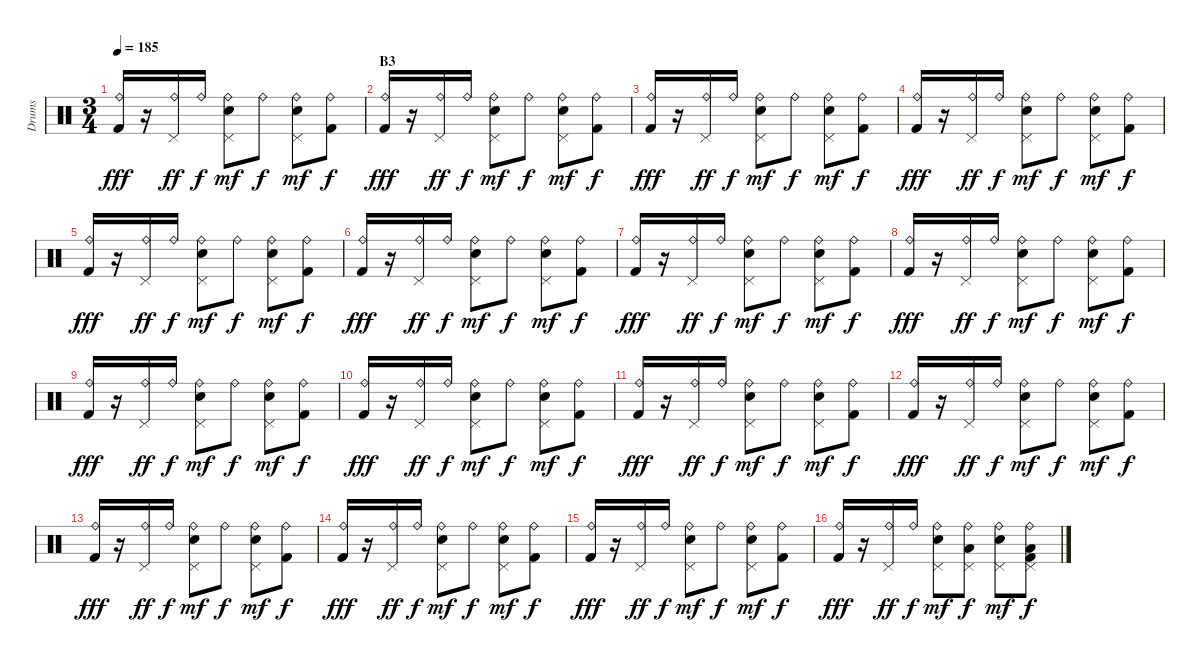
\track ("Drums" "Drums") {instrument percussion}
\staff {score}
\articulation defaults
\ts (3 4)
\tempo 185
\clef neutral
\ks c
("Ride (bell)" "Kick (hit) 2").16{dy fff} r.16 ("Ride (bell)" "Pedal Hi-Hat (hit)").16{dy ff} "Ride (bell)".16{dy f} ("Ride (bell)" "Pedal Hi-Hat (hit)" "Electric Snare (hit)").8{dy mf} "Ride (bell)".8{dy f} ("Ride (bell)" "Pedal Hi-Hat (hit)" "Electric Snare (hit)").8{dy mf} ("Ride (bell)" "Kick (hit) 2").8{dy f} |
\section ("" "B3")
("Ride (bell)" "Kick (hit) 2").16{dy fff} r.16 ("Ride (bell)" "Pedal Hi-Hat (hit)").16{dy ff} "Ride (bell)".16{dy f} ("Ride (bell)" "Pedal Hi-Hat (hit)" "Electric Snare (hit)").8{dy mf} "Ride (bell)".8{dy f} ("Ride (bell)" "Pedal Hi-Hat (hit)" "Electric Snare (hit)").8{dy mf} ("Ride (bell)" "Kick (hit) 2").8{dy f} |
("Ride (bell)" "Kick (hit) 2").16{dy fff} r.16 ("Ride (bell)" "Pedal Hi-Hat (hit)").16{dy ff} "Ride (bell)".16{dy f} ("Ride (bell)" "Pedal Hi-Hat (hit)" "Electric Snare (hit)").8{dy mf} "Ride (bell)".8{dy f} ("Ride (bell)" "Pedal Hi-Hat (hit)" "Electric Snare (hit)").8{dy mf} ("Ride (bell)" "Kick (hit) 2").8{dy f} |
("Ride (bell)" "Kick (hit) 2").16{dy fff} r.16 ("Ride (bell)" "Pedal Hi-Hat (hit)").16{dy ff} "Ride (bell)".16{dy f} ("Ride (bell)" "Pedal Hi-Hat (hit)" "Electric Snare (hit)").8{dy mf} "Ride (bell)".8{dy f} ("Ride (bell)" "Pedal Hi-Hat (hit)" "Electric Snare (hit)").8{dy mf} ("Ride (bell)" "Kick (hit) 2").8{dy f} |
("Ride (bell)" "Kick (hit) 2").16{dy fff} r.16 ("Ride (bell)" "Pedal Hi-Hat (hit)").16{dy ff} "Ride (bell)".16{dy f} ("Ride (bell)" "Pedal Hi-Hat (hit)" "Electric Snare (hit)").8{dy mf} "Ride (bell)".8{dy f} ("Ride (bell)" "Pedal Hi-Hat (hit)" "Electric Snare (hit)").8{dy mf} ("Ride (bell)" "Kick (hit) 2").8{dy f} |
("Ride (bell)" "Kick (hit) 2").16{dy fff} r.16 ("Ride (bell)" "Pedal Hi-Hat (hit)").16{dy ff} "Ride (bell)".16{dy f} ("Ride (bell)" "Pedal Hi-Hat (hit)" "Electric Snare (hit)").8{dy mf} "Ride (bell)".8{dy f} ("Ride (bell)" "Pedal Hi-Hat (hit)" "Electric Snare (hit)").8{dy mf} ("Ride (bell)" "Kick (hit) 2").8{dy f} |
("Ride (bell)" "Kick (hit) 2").16{dy fff} r.16 ("Ride (bell)" "Pedal Hi-Hat (hit)").16{dy ff} "Ride (bell)".16{dy f} ("Ride (bell)" "Pedal Hi-Hat (hit)" "Electric Snare (hit)").8{dy mf} "Ride (bell)".8{dy f} ("Ride (bell)" "Pedal Hi-Hat (hit)" "Electric Snare (hit)").8{dy mf} ("Ride (bell)" "Kick (hit) 2").8{dy f} |
("Ride (bell)" "Kick (hit) 2").16{dy fff} r.16 ("Ride (bell)" "Pedal Hi-Hat (hit)").16{dy ff} "Ride (bell)".16{dy f} ("Ride (bell)" "Pedal Hi-Hat (hit)" "Electric Snare (hit)").8{dy mf} "Ride (bell)".8{dy f} ("Ride (bell)" "Pedal Hi-Hat (hit)" "Electric Snare (hit)").8{dy mf} ("Ride (bell)" "Kick (hit) 2").8{dy f} |
("Ride (bell)" "Kick (hit) 2").16{dy fff} r.16 ("Ride (bell)" "Pedal Hi-Hat (hit)").16{dy ff} "Ride (bell)".16{dy f} ("Ride (bell)" "Pedal Hi-Hat (hit)" "Electric Snare (hit)").8{dy mf} "Ride (bell)".8{dy f} ("Ride (bell)" "Pedal Hi-Hat (hit)" "Electric Snare (hit)").8{dy mf} ("Ride (bell)" "Kick (hit) 2").8{dy f} |
("Ride (bell)" "Kick (hit) 2").16{dy fff} r.16 ("Ride (bell)" "Pedal Hi-Hat (hit)").16{dy ff} "Ride (bell)".16{dy f} ("Ride (bell)" "Pedal Hi-Hat (hit)" "Electric Snare (hit)").8{dy mf} "Ride (bell)".8{dy f} ("Ride (bell)" "Pedal Hi-Hat (hit)" "Electric Snare (hit)").8{dy mf} ("Ride (bell)" "Kick (hit) 2").8{dy f} |
("Ride (bell)" "Kick (hit) 2").16{dy fff} r.16 ("Ride (bell)" "Pedal Hi-Hat (hit)").16{dy ff} "Ride (bell)".16{dy f} ("Ride (bell)" "Pedal Hi-Hat (hit)" "Electric Snare (hit)").8{dy mf} "Ride (bell)".8{dy f} ("Ride (bell)" "Pedal Hi-Hat (hit)" "Electric Snare (hit)").8{dy mf} ("Ride (bell)" "Kick (hit) 2").8{dy f} |
("Ride (bell)" "Kick (hit) 2").16{dy fff} r.16 ("Ride (bell)" "Pedal Hi-Hat (hit)").16{dy ff} "Ride (bell)".16{dy f} ("Ride (bell)" "Pedal Hi-Hat (hit)" "Electric Snare (hit)").8{dy mf} "Ride (bell)".8{dy f} ("Ride (bell)" "Pedal Hi-Hat (hit)" "Electric Snare (hit)").8{dy mf} ("Ride (bell)" "Kick (hit) 2").8{dy f} |
("Ride (bell)" "Kick (hit) 2").16{dy fff} r.16 ("Ride (bell)" "Pedal Hi-Hat (hit)").16{dy ff} "Ride (bell)".16{dy f} ("Ride (bell)" "Pedal Hi-Hat (hit)" "Electric Snare (hit)").8{dy mf} "Ride (bell)".8{dy f} ("Ride (bell)" "Pedal Hi-Hat (hit)" "Electric Snare (hit)").8{dy mf} ("Ride (bell)" "Kick (hit) 2").8{dy f} |
("Ride (bell)" "Kick (hit) 2").16{dy fff} r.16 ("Ride (bell)" "Pedal Hi-Hat (hit)").16{dy ff} "Ride (bell)".16{dy f} ("Ride (bell)" "Pedal Hi-Hat (hit)" "Electric Snare (hit)").8{dy mf} "Ride (bell)".8{dy f} ("Ride (bell)" "Pedal Hi-Hat (hit)" "Electric Snare (hit)").8{dy mf} ("Ride (bell)" "Kick (hit) 2").8{dy f} |
("Ride (bell)" "Kick (hit) 2").16{dy fff} r.16 ("Ride (bell)" "Pedal Hi-Hat (hit)").16{dy ff} "Ride (bell)".16{dy f} ("Ride (bell)" "Pedal Hi-Hat (hit)" "Electric Snare (hit)").8{dy mf} "Ride (bell)".8{dy f} ("Ride (bell)" "Pedal Hi-Hat (hit)" "Electric Snare (hit)").8{dy mf} ("Ride (bell)" "Kick (hit) 2").8{dy f} |
("Ride (bell)" "Kick (hit) 2").16{dy fff} r.16 ("Ride (bell)" "Pedal Hi-Hat (hit)").16{dy ff} "Ride (bell)".16{dy f} ("Ride (bell)" "Pedal Hi-Hat (hit)" "Electric Snare (hit)").8{dy mf} ("Ride (bell)" "Pedal Hi-Hat (hit)" "Low Floor Tom (hit)").8{dy f} ("Ride (bell)" "Pedal Hi-Hat (hit)" "Electric Snare (hit)").8{dy mf} ("Ride (bell)" "Pedal Hi-Hat (hit)" "Low Floor Tom (hit)" "Kick (hit) 2").8{dy f}
